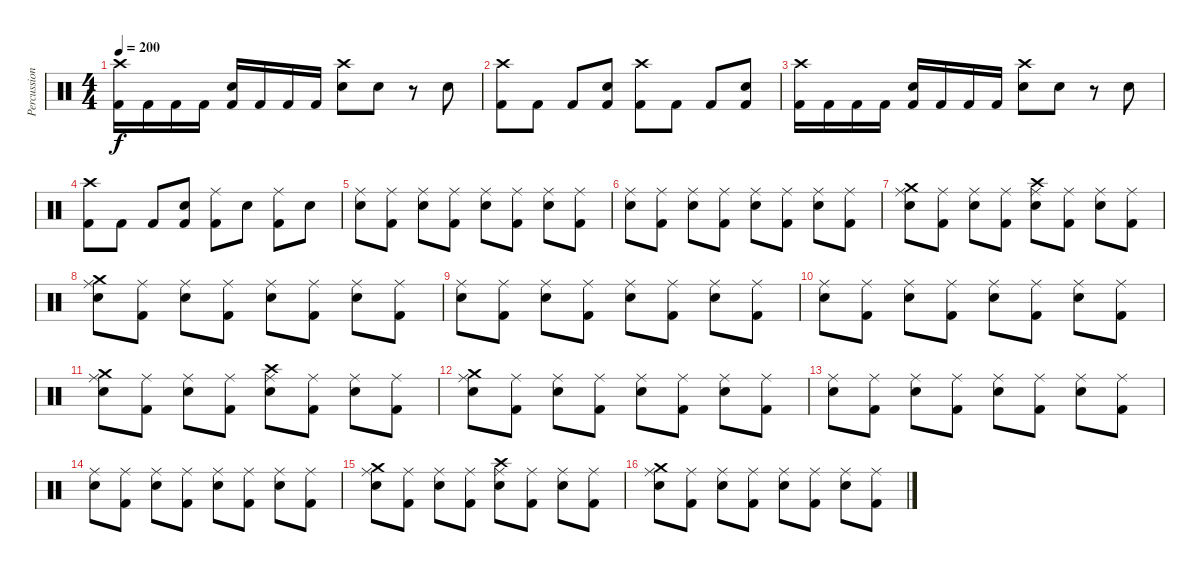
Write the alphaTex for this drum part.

\track ("Percussion" "Percussion") {instrument percussion}
\staff {score}
\articulation defaults
\ts (4 4)
\tempo 200
\clef neutral
\ks c
("Crash high (hit)" "Kick (hit) 2").16{dy f} "Kick (hit) 2".16 "Kick (hit) 2".16 "Kick (hit) 2".16 ("Snare (hit) 2" "Kick (hit) 2").16 "Kick (hit) 2".16 "Kick (hit) 2".16 "Kick (hit) 2".16 ("Snare (hit) 2" "Crash high (hit)").8 "Snare (hit) 2".8 r.8 "Snare (hit) 2".8 |
("Kick (hit) 2" "Crash high (hit)").8 "Kick (hit) 2".8 "Kick (hit) 2".8 ("Kick (hit) 2" "Snare (hit) 2").8 ("Kick (hit) 2" "Crash high (hit)").8 "Kick (hit) 2".8 "Kick (hit) 2".8 ("Kick (hit) 2" "Snare (hit) 2").8 |
("Crash high (hit)" "Kick (hit) 2").16 "Kick (hit) 2".16 "Kick (hit) 2".16 "Kick (hit) 2".16 ("Snare (hit) 2" "Kick (hit) 2").16 "Kick (hit) 2".16 "Kick (hit) 2".16 "Kick (hit) 2".16 ("Snare (hit) 2" "Crash high (hit)").8 "Snare (hit) 2".8 r.8 "Snare (hit) 2".8 |
("Kick (hit) 2" "Crash high (hit)").8 "Kick (hit) 2".8 "Kick (hit) 2".8 ("Kick (hit) 2" "Snare (hit) 2").8 ("Kick (hit) 2" "Ride (middle)").8 "Snare (hit) 2".8 ("Kick (hit) 2" "Ride (middle)").8 "Snare (hit) 2".8 |
("Ride (middle)" "Snare (hit) 2").8 ("Kick (hit) 2" "Ride (middle)").8 ("Ride (middle)" "Snare (hit) 2").8 ("Kick (hit) 2" "Ride (middle)").8 ("Ride (middle)" "Snare (hit) 2").8 ("Kick (hit) 2" "Ride (middle)").8 ("Ride (middle)" "Snare (hit) 2").8 ("Kick (hit) 2" "Ride (middle)").8 |
("Ride (middle)" "Snare (hit) 2").8 ("Kick (hit) 2" "Ride (middle)").8 ("Ride (middle)" "Snare (hit) 2").8 ("Kick (hit) 2" "Ride (middle)").8 ("Ride (middle)" "Snare (hit) 2").8 ("Kick (hit) 2" "Ride (middle)").8 ("Ride (middle)" "Snare (hit) 2").8 ("Kick (hit) 2" "Ride (middle)").8 |
("Ride (middle)" "Snare (hit) 2" "Crash medium (hit)").8 ("Kick (hit) 2" "Ride (middle)").8 ("Ride (middle)" "Snare (hit) 2").8 ("Kick (hit) 2" "Ride (middle)").8 ("Ride (middle)" "Snare (hit) 2" "Crash high (hit)").8 ("Kick (hit) 2" "Ride (middle)").8 ("Ride (middle)" "Snare (hit) 2").8 ("Kick (hit) 2" "Ride (middle)").8 |
("Ride (middle)" "Snare (hit) 2" "Crash medium (hit)").8 ("Kick (hit) 2" "Ride (middle)").8 ("Ride (middle)" "Snare (hit) 2").8 ("Kick (hit) 2" "Ride (middle)").8 ("Ride (middle)" "Snare (hit) 2").8 ("Kick (hit) 2" "Ride (middle)").8 ("Ride (middle)" "Snare (hit) 2").8 ("Kick (hit) 2" "Ride (middle)").8 |
("Ride (middle)" "Snare (hit) 2").8 ("Kick (hit) 2" "Ride (middle)").8 ("Ride (middle)" "Snare (hit) 2").8 ("Kick (hit) 2" "Ride (middle)").8 ("Ride (middle)" "Snare (hit) 2").8 ("Kick (hit) 2" "Ride (middle)").8 ("Ride (middle)" "Snare (hit) 2").8 ("Kick (hit) 2" "Ride (middle)").8 |
("Ride (middle)" "Snare (hit) 2").8 ("Kick (hit) 2" "Ride (middle)").8 ("Ride (middle)" "Snare (hit) 2").8 ("Kick (hit) 2" "Ride (middle)").8 ("Ride (middle)" "Snare (hit) 2").8 ("Kick (hit) 2" "Ride (middle)").8 ("Ride (middle)" "Snare (hit) 2").8 ("Kick (hit) 2" "Ride (middle)").8 |
("Ride (middle)" "Snare (hit) 2" "Crash medium (hit)").8 ("Kick (hit) 2" "Ride (middle)").8 ("Ride (middle)" "Snare (hit) 2").8 ("Kick (hit) 2" "Ride (middle)").8 ("Ride (middle)" "Snare (hit) 2" "Crash high (hit)").8 ("Kick (hit) 2" "Ride (middle)").8 ("Ride (middle)" "Snare (hit) 2").8 ("Kick (hit) 2" "Ride (middle)").8 |
("Ride (middle)" "Snare (hit) 2" "Crash medium (hit)").8 ("Kick (hit) 2" "Ride (middle)").8 ("Ride (middle)" "Snare (hit) 2").8 ("Kick (hit) 2" "Ride (middle)").8 ("Ride (middle)" "Snare (hit) 2").8 ("Kick (hit) 2" "Ride (middle)").8 ("Ride (middle)" "Snare (hit) 2").8 ("Kick (hit) 2" "Ride (middle)").8 |
("Ride (middle)" "Snare (hit) 2").8 ("Kick (hit) 2" "Ride (middle)").8 ("Ride (middle)" "Snare (hit) 2").8 ("Kick (hit) 2" "Ride (middle)").8 ("Ride (middle)" "Snare (hit) 2").8 ("Kick (hit) 2" "Ride (middle)").8 ("Ride (middle)" "Snare (hit) 2").8 ("Kick (hit) 2" "Ride (middle)").8 |
("Ride (middle)" "Snare (hit) 2").8 ("Kick (hit) 2" "Ride (middle)").8 ("Ride (middle)" "Snare (hit) 2").8 ("Kick (hit) 2" "Ride (middle)").8 ("Ride (middle)" "Snare (hit) 2").8 ("Kick (hit) 2" "Ride (middle)").8 ("Ride (middle)" "Snare (hit) 2").8 ("Kick (hit) 2" "Ride (middle)").8 |
("Ride (middle)" "Snare (hit) 2" "Crash medium (hit)").8 ("Kick (hit) 2" "Ride (middle)").8 ("Ride (middle)" "Snare (hit) 2").8 ("Kick (hit) 2" "Ride (middle)").8 ("Ride (middle)" "Snare (hit) 2" "Crash high (hit)").8 ("Kick (hit) 2" "Ride (middle)").8 ("Ride (middle)" "Snare (hit) 2").8 ("Kick (hit) 2" "Ride (middle)").8 |
("Ride (middle)" "Snare (hit) 2" "Crash medium (hit)").8 ("Kick (hit) 2" "Ride (middle)").8 ("Ride (middle)" "Snare (hit) 2").8 ("Kick (hit) 2" "Ride (middle)").8 ("Ride (middle)" "Snare (hit) 2").8 ("Kick (hit) 2" "Ride (middle)").8 ("Ride (middle)" "Snare (hit) 2").8 ("Kick (hit) 2" "Ride (middle)").8
